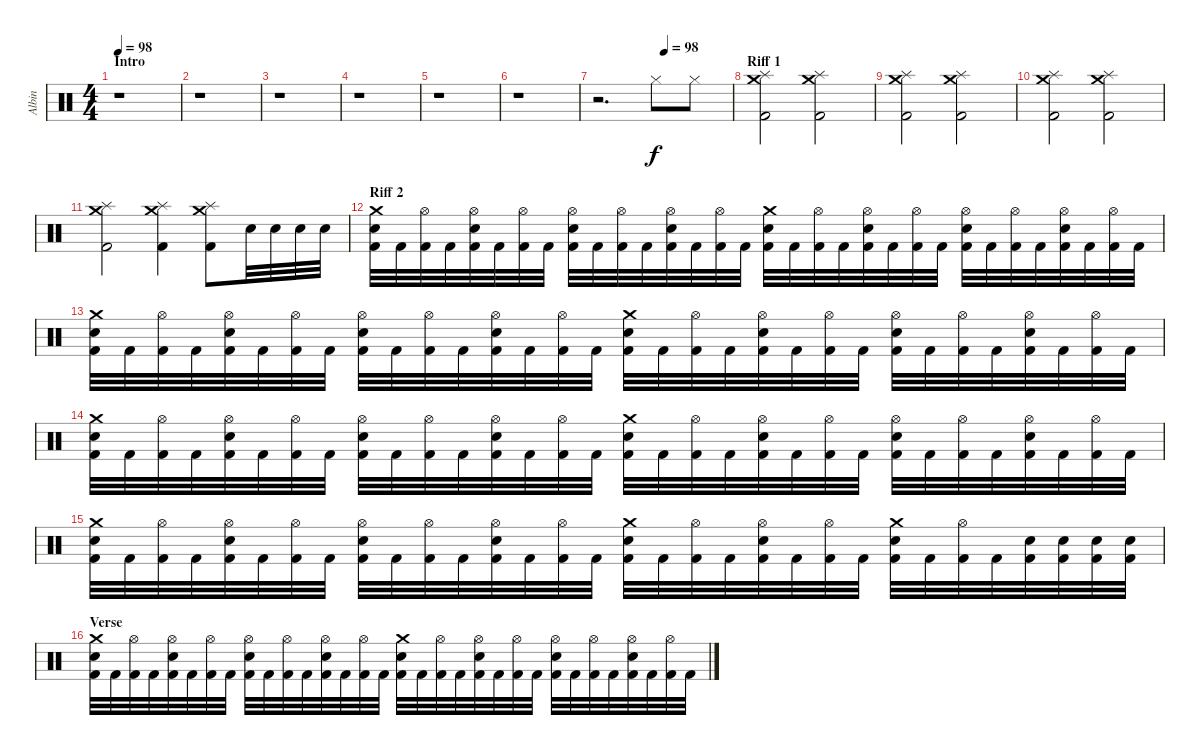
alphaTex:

\track ("Albin" "Albin") {instrument percussion}
\staff {score}
\articulation defaults
\ts (4 4)
\section ("" "Intro")
\tempo 98
\tempo 60
\tempo 98
\clef neutral
\ks c
r.1{dy f} |
r.1 |
r.1 |
r.1 |
r.1 |
r.1 |
\tempo (98 0.5)
r.2{d} "Hi-Hat (closed)".8 "Hi-Hat (closed)".8 |
\section ("" "Riff 1")
("Crash medium (hit)" "Splash (hit)" "Kick (hit) 2").2 ("Crash medium (hit)" "Splash (hit)" "Kick (hit) 2").2 |
("Crash medium (hit)" "Splash (hit)" "Kick (hit) 2").2 ("Crash medium (hit)" "Splash (hit)" "Kick (hit) 2").2 |
("Crash medium (hit)" "Splash (hit)" "Kick (hit) 2").2 ("Crash medium (hit)" "Splash (hit)" "Kick (hit) 2").2 |
("Crash medium (hit)" "Splash (hit)" "Kick (hit) 2").2 ("Crash medium (hit)" "Splash (hit)" "Kick (hit) 2").4 ("Crash medium (hit)" "Splash (hit)" "Kick (hit) 2").8 "Electric Snare (hit)".32 "Electric Snare (hit)".32 "Electric Snare (hit)".32 "Electric Snare (hit)".32 |
\section ("" "Riff 2")
("Crash medium (hit)" "Electric Snare (hit)" "Kick (hit) 2").32 "Kick (hit) 2".32 ("Hi-Hat (open)" "Kick (hit) 2").32 "Kick (hit) 2".32 ("Hi-Hat (open)" "Electric Snare (hit)" "Kick (hit) 2").32 "Kick (hit) 2".32 ("Hi-Hat (open)" "Kick (hit) 2").32 "Kick (hit) 2".32 ("Hi-Hat (open)" "Electric Snare (hit)" "Kick (hit) 2").32 "Kick (hit) 2".32 ("Hi-Hat (open)" "Kick (hit) 2").32 "Kick (hit) 2".32 ("Hi-Hat (open)" "Electric Snare (hit)" "Kick (hit) 2").32 "Kick (hit) 2".32 ("Hi-Hat (open)" "Kick (hit) 2").32 "Kick (hit) 2".32 ("Crash medium (hit)" "Electric Snare (hit)" "Kick (hit) 2").32 "Kick (hit) 2".32 ("Hi-Hat (open)" "Kick (hit) 2").32 "Kick (hit) 2".32 ("Hi-Hat (open)" "Electric Snare (hit)" "Kick (hit) 2").32 "Kick (hit) 2".32 ("Hi-Hat (open)" "Kick (hit) 2").32 "Kick (hit) 2".32 ("Hi-Hat (open)" "Electric Snare (hit)" "Kick (hit) 2").32 "Kick (hit) 2".32 ("Hi-Hat (open)" "Kick (hit) 2").32 "Kick (hit) 2".32 ("Hi-Hat (open)" "Electric Snare (hit)" "Kick (hit) 2").32 "Kick (hit) 2".32 ("Hi-Hat (open)" "Kick (hit) 2").32 "Kick (hit) 2".32 |
("Crash medium (hit)" "Electric Snare (hit)" "Kick (hit) 2").32 "Kick (hit) 2".32 ("Hi-Hat (open)" "Kick (hit) 2").32 "Kick (hit) 2".32 ("Hi-Hat (open)" "Electric Snare (hit)" "Kick (hit) 2").32 "Kick (hit) 2".32 ("Hi-Hat (open)" "Kick (hit) 2").32 "Kick (hit) 2".32 ("Hi-Hat (open)" "Electric Snare (hit)" "Kick (hit) 2").32 "Kick (hit) 2".32 ("Hi-Hat (open)" "Kick (hit) 2").32 "Kick (hit) 2".32 ("Hi-Hat (open)" "Electric Snare (hit)" "Kick (hit) 2").32 "Kick (hit) 2".32 ("Hi-Hat (open)" "Kick (hit) 2").32 "Kick (hit) 2".32 ("Crash medium (hit)" "Electric Snare (hit)" "Kick (hit) 2").32 "Kick (hit) 2".32 ("Hi-Hat (open)" "Kick (hit) 2").32 "Kick (hit) 2".32 ("Hi-Hat (open)" "Electric Snare (hit)" "Kick (hit) 2").32 "Kick (hit) 2".32 ("Hi-Hat (open)" "Kick (hit) 2").32 "Kick (hit) 2".32 ("Hi-Hat (open)" "Electric Snare (hit)" "Kick (hit) 2").32 "Kick (hit) 2".32 ("Hi-Hat (open)" "Kick (hit) 2").32 "Kick (hit) 2".32 ("Hi-Hat (open)" "Electric Snare (hit)" "Kick (hit) 2").32 "Kick (hit) 2".32 ("Hi-Hat (open)" "Kick (hit) 2").32 "Kick (hit) 2".32 |
("Crash medium (hit)" "Electric Snare (hit)" "Kick (hit) 2").32 "Kick (hit) 2".32 ("Hi-Hat (open)" "Kick (hit) 2").32 "Kick (hit) 2".32 ("Hi-Hat (open)" "Electric Snare (hit)" "Kick (hit) 2").32 "Kick (hit) 2".32 ("Hi-Hat (open)" "Kick (hit) 2").32 "Kick (hit) 2".32 ("Hi-Hat (open)" "Electric Snare (hit)" "Kick (hit) 2").32 "Kick (hit) 2".32 ("Hi-Hat (open)" "Kick (hit) 2").32 "Kick (hit) 2".32 ("Hi-Hat (open)" "Electric Snare (hit)" "Kick (hit) 2").32 "Kick (hit) 2".32 ("Hi-Hat (open)" "Kick (hit) 2").32 "Kick (hit) 2".32 ("Crash medium (hit)" "Electric Snare (hit)" "Kick (hit) 2").32 "Kick (hit) 2".32 ("Hi-Hat (open)" "Kick (hit) 2").32 "Kick (hit) 2".32 ("Hi-Hat (open)" "Electric Snare (hit)" "Kick (hit) 2").32 "Kick (hit) 2".32 ("Hi-Hat (open)" "Kick (hit) 2").32 "Kick (hit) 2".32 ("Hi-Hat (open)" "Electric Snare (hit)" "Kick (hit) 2").32 "Kick (hit) 2".32 ("Hi-Hat (open)" "Kick (hit) 2").32 "Kick (hit) 2".32 ("Hi-Hat (open)" "Electric Snare (hit)" "Kick (hit) 2").32 "Kick (hit) 2".32 ("Hi-Hat (open)" "Kick (hit) 2").32 "Kick (hit) 2".32 |
("Crash medium (hit)" "Electric Snare (hit)" "Kick (hit) 2").32 "Kick (hit) 2".32 ("Hi-Hat (open)" "Kick (hit) 2").32 "Kick (hit) 2".32 ("Hi-Hat (open)" "Electric Snare (hit)" "Kick (hit) 2").32 "Kick (hit) 2".32 ("Hi-Hat (open)" "Kick (hit) 2").32 "Kick (hit) 2".32 ("Hi-Hat (open)" "Electric Snare (hit)" "Kick (hit) 2").32 "Kick (hit) 2".32 ("Hi-Hat (open)" "Kick (hit) 2").32 "Kick (hit) 2".32 ("Hi-Hat (open)" "Electric Snare (hit)" "Kick (hit) 2").32 "Kick (hit) 2".32 ("Hi-Hat (open)" "Kick (hit) 2").32 "Kick (hit) 2".32 ("Crash medium (hit)" "Electric Snare (hit)" "Kick (hit) 2").32 "Kick (hit) 2".32 ("Hi-Hat (open)" "Kick (hit) 2").32 "Kick (hit) 2".32 ("Hi-Hat (open)" "Electric Snare (hit)" "Kick (hit) 2").32 "Kick (hit) 2".32 ("Hi-Hat (open)" "Kick (hit) 2").32 "Kick (hit) 2".32 ("Crash medium (hit)" "Electric Snare (hit)" "Kick (hit) 2").32 "Kick (hit) 2".32 ("Hi-Hat (open)" "Kick (hit) 2").32 "Kick (hit) 2".32 ("Electric Snare (hit)" "Kick (hit) 2").32 ("Electric Snare (hit)" "Kick (hit) 2").32 ("Electric Snare (hit)" "Kick (hit) 2").32 ("Electric Snare (hit)" "Kick (hit) 2").32 |
\section ("" "Verse")
("Crash medium (hit)" "Electric Snare (hit)" "Kick (hit) 2").32 "Kick (hit) 2".32 ("Hi-Hat (open)" "Kick (hit) 2").32 "Kick (hit) 2".32 ("Hi-Hat (open)" "Electric Snare (hit)" "Kick (hit) 2").32 "Kick (hit) 2".32 ("Hi-Hat (open)" "Kick (hit) 2").32 "Kick (hit) 2".32 ("Hi-Hat (open)" "Electric Snare (hit)" "Kick (hit) 2").32 "Kick (hit) 2".32 ("Hi-Hat (open)" "Kick (hit) 2").32 "Kick (hit) 2".32 ("Hi-Hat (open)" "Electric Snare (hit)" "Kick (hit) 2").32 "Kick (hit) 2".32 ("Hi-Hat (open)" "Kick (hit) 2").32 "Kick (hit) 2".32 ("Crash medium (hit)" "Electric Snare (hit)" "Kick (hit) 2").32 "Kick (hit) 2".32 ("Hi-Hat (open)" "Kick (hit) 2").32 "Kick (hit) 2".32 ("Hi-Hat (open)" "Electric Snare (hit)" "Kick (hit) 2").32 "Kick (hit) 2".32 ("Hi-Hat (open)" "Kick (hit) 2").32 "Kick (hit) 2".32 ("Hi-Hat (open)" "Electric Snare (hit)" "Kick (hit) 2").32 "Kick (hit) 2".32 ("Hi-Hat (open)" "Kick (hit) 2").32 "Kick (hit) 2".32 ("Hi-Hat (open)" "Electric Snare (hit)" "Kick (hit) 2").32 "Kick (hit) 2".32 ("Hi-Hat (open)" "Kick (hit) 2").32 "Kick (hit) 2".32
